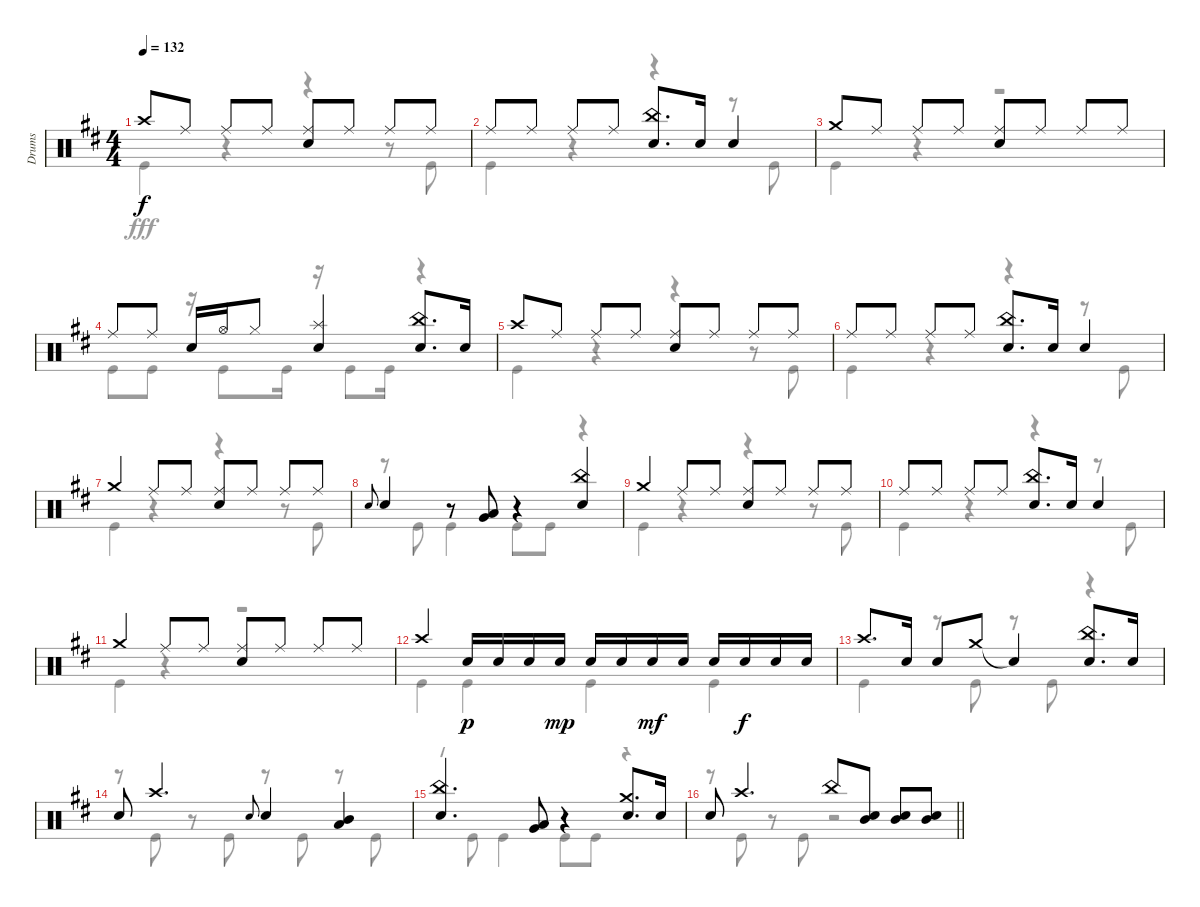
\track ("Drums" "Drums") {instrument percussion}
\staff {score}
\articulation defaults
\voice
\ts (4 4)
\tempo 132
\clef neutral
\ks d "Crash high (hit)".8{dy f} "Ride (middle)".8 "Ride (middle)".8 "Ride (middle)".8
("Ride (middle)" "Snare (hit) 2").8 "Ride (middle)".8 "Ride (middle)".8 "Ride (middle)".8 |
"Ride (middle)".8 "Ride (middle)".8 "Ride (middle)".8 "Ride (middle)".8 ("China (hit)" "Snare (hit) 2").8{d} "Snare (hit) 2".16 "Snare (hit) 2".4 |
"Crash medium (hit)".8 "Ride (middle)".8 "Ride (middle)".8 "Ride (middle)".8 ("Ride (middle)" "Snare (hit) 2").8 "Ride (middle)".8 "Ride (middle)".8 "Ride (middle)".8 |
"Ride (middle)".8 "Ride (middle)".8 "Snare (hit) 2".16 "Hi-Hat (open)".16 "Hi-Hat (closed)".8 ("Splash (hit)" "Snare (hit) 2").4 ("China (hit)" "Snare (hit) 2").8{d} "Snare (hit) 2".16 |
"Crash high (hit)".8 "Ride (middle)".8 "Ride (middle)".8 "Ride (middle)".8 ("Ride (middle)" "Snare (hit) 2").8 "Ride (middle)".8 "Ride (middle)".8 "Ride (middle)".8 |
"Ride (middle)".8 "Ride (middle)".8 "Ride (middle)".8 "Ride (middle)".8 ("China (hit)" "Snare (hit) 2").8{d} "Snare (hit) 2".16 "Snare (hit) 2".4 |
"Crash medium (hit)".4 "Ride (middle)".8 "Ride (middle)".8 ("Ride (middle)" "Snare (hit) 2").8 "Ride (middle)".8 "Ride (middle)".8 "Ride (middle)".8 |
"Snare (hit) 2".8{gr onbeat} "Snare (hit) 2".4 r.8 ("Low Tom (hit)" "Very Low Tom (hit)").8 r.4 ("China (hit)" "Snare (hit) 2").4 |
"Crash medium (hit)".4 "Ride (middle)".8 "Ride (middle)".8 ("Ride (middle)" "Snare (hit) 2").8 "Ride (middle)".8 "Ride (middle)".8 "Ride (middle)".8 |
"Ride (middle)".8 "Ride (middle)".8 "Ride (middle)".8 "Ride (middle)".8 ("China (hit)" "Snare (hit) 2").8{d} "Snare (hit) 2".16 "Snare (hit) 2".4 |
"Crash medium (hit)".4 "Ride (middle)".8 "Ride (middle)".8 ("Ride (middle)" "Snare (hit) 2").8 "Ride (middle)".8 "Ride (middle)".8 "Ride (middle)".8 |
"Crash high (hit)".4 "Snare (hit) 2".16{dy p} "Snare (hit) 2".16 "Snare (hit) 2".16 "Snare (hit) 2".16{dy mp} "Snare (hit) 2".16 "Snare (hit) 2".16 "Snare (hit) 2".16{dy mf} "Snare (hit) 2".16 "Snare (hit) 2".16 "Snare (hit) 2".16{dy f} "Snare (hit) 2".16 "Snare (hit) 2".16 |
"Crash high (hit)".8{d} "Snare (hit) 2".16 "Snare (hit) 2".8 "Crash medium (hit)".8 "Snare (hit)"{t}.4 ("China (hit)" "Snare (hit) 2").8{d} "Snare (hit) 2".16 |
"Snare (hit) 2".8 "Crash high (hit)".4{d} "Snare (hit) 2".8{gr onbeat} "Snare (hit) 2".4 ("Low Tom (hit)" "Mid Tom (hit)").4 |
("China (hit)" "Snare (hit) 2").4{d} ("Low Tom (hit)" "Very Low Tom (hit)").8 r.4 ("Crash medium (hit)" "Snare (hit) 2").8{d} "Snare (hit) 2".16 |
\barLineRight lightlight "Snare (hit) 2".8 "Crash high (hit)".4{d} "China (hit)".8
("Mid Tom (hit)" "Snare (hit) 2").8 ("Mid Tom (hit)" "Snare (hit) 2").8 ("Mid Tom (hit)" "Snare (hit) 2").8
\voice
\clef neutral
\ottava regular
\simile none
\ks d "Kick (hit)".4{dy fff}
r.4 r.4 r.8 "Kick (hit)".8 |
"Kick (hit)".4 r.4 r.4 r.8 "Kick (hit)".8 |
"Kick (hit)".4 r.4 r.2 |
"Kick (hit)".8 "Kick (hit)".8 r.16 "Kick (hit)".8 "Kick (hit)".16 r.16 "Kick (hit)".8 "Kick (hit)".16 r.4 |
"Kick (hit)".4 r.4 r.4 r.8 "Kick (hit)".8 |
"Kick (hit)".4 r.4 r.4 r.8 "Kick (hit)".8 |
"Kick (hit)".4 r.4 r.4 r.8 "Kick (hit)".8 |
r.8 "Kick (hit)".8 "Kick (hit)".4 "Kick (hit)".8 "Kick (hit)".8 r.4 |
"Kick (hit)".4 r.4 r.4 r.8 "Kick (hit)".8 |
"Kick (hit)".4 r.4 r.4 r.8 "Kick (hit)".8 |
"Kick (hit)".4 r.4 r.2 |
"Kick (hit)".4 "Kick (hit)".4 "Kick (hit)".4 "Kick (hit)".4 |
"Kick (hit)".4 r.8 "Kick (hit)".8 r.8 "Kick (hit)".8 r.4 |
r.8 "Kick (hit)".8 r.8 "Kick (hit)".8 r.8 "Kick (hit)".8 r.8 "Kick (hit)".8 |
r.8 "Kick (hit)".8 "Kick (hit)".4 "Kick (hit)".8 "Kick (hit)".8 r.4 |
\barLineRight lightlight
r.8 "Kick (hit)".8 r.8 "Kick (hit)".8 r.2
